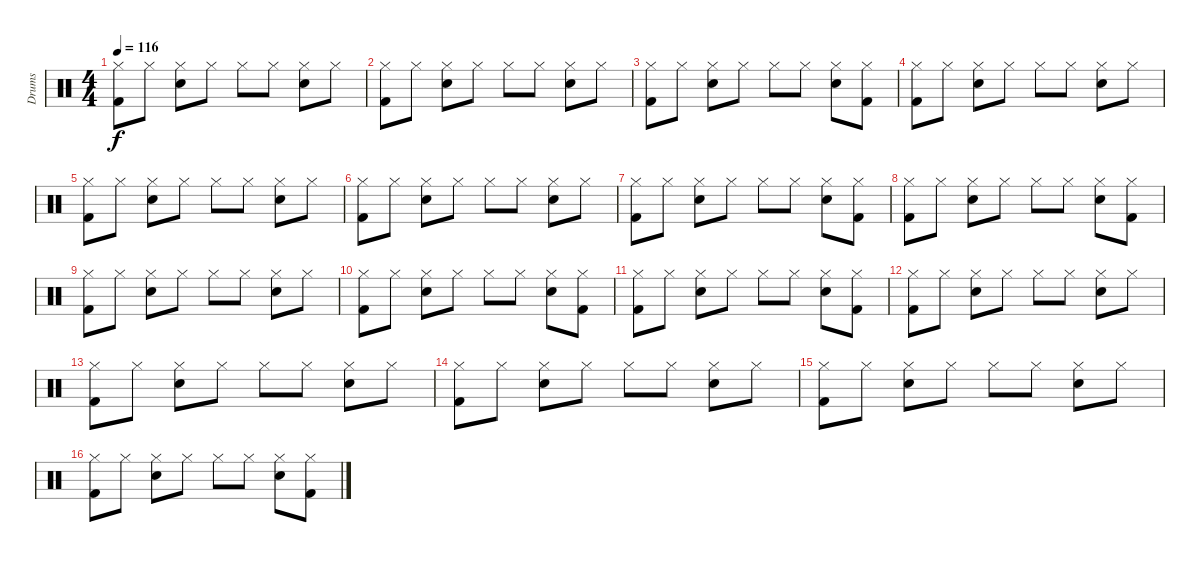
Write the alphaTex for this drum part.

\track ("Drums" "Drums") {instrument percussion}
\staff {score}
\articulation defaults
\ts (4 4)
\tempo 116
\clef neutral
\ks c
("Kick (hit) 2" "Hi-Hat (closed)").8{dy f} "Hi-Hat (closed)".8 ("Snare (hit) 2" "Hi-Hat (closed)").8 "Hi-Hat (closed)".8 "Hi-Hat (closed)".8 "Hi-Hat (closed)".8 ("Snare (hit) 2" "Hi-Hat (closed)").8 "Hi-Hat (closed)".8 |
("Kick (hit) 2" "Hi-Hat (closed)").8 "Hi-Hat (closed)".8 ("Snare (hit) 2" "Hi-Hat (closed)").8 "Hi-Hat (closed)".8 "Hi-Hat (closed)".8 "Hi-Hat (closed)".8 ("Snare (hit) 2" "Hi-Hat (closed)").8 "Hi-Hat (closed)".8 |
("Kick (hit) 2" "Hi-Hat (closed)").8 "Hi-Hat (closed)".8 ("Snare (hit) 2" "Hi-Hat (closed)").8 "Hi-Hat (closed)".8 "Hi-Hat (closed)".8 "Hi-Hat (closed)".8 ("Snare (hit) 2" "Hi-Hat (closed)").8 ("Kick (hit) 2" "Hi-Hat (closed)").8 |
("Kick (hit) 2" "Hi-Hat (closed)").8 "Hi-Hat (closed)".8 ("Snare (hit) 2" "Hi-Hat (closed)").8 "Hi-Hat (closed)".8 "Hi-Hat (closed)".8 "Hi-Hat (closed)".8 ("Snare (hit) 2" "Hi-Hat (closed)").8 "Hi-Hat (closed)".8 |
("Kick (hit) 2" "Hi-Hat (closed)").8 "Hi-Hat (closed)".8 ("Snare (hit) 2" "Hi-Hat (closed)").8 "Hi-Hat (closed)".8 "Hi-Hat (closed)".8 "Hi-Hat (closed)".8 ("Snare (hit) 2" "Hi-Hat (closed)").8 "Hi-Hat (closed)".8 |
("Kick (hit) 2" "Hi-Hat (closed)").8 "Hi-Hat (closed)".8 ("Snare (hit) 2" "Hi-Hat (closed)").8 "Hi-Hat (closed)".8 "Hi-Hat (closed)".8 "Hi-Hat (closed)".8 ("Snare (hit) 2" "Hi-Hat (closed)").8 "Hi-Hat (closed)".8 |
("Kick (hit) 2" "Hi-Hat (closed)").8 "Hi-Hat (closed)".8 ("Snare (hit) 2" "Hi-Hat (closed)").8 "Hi-Hat (closed)".8 "Hi-Hat (closed)".8 "Hi-Hat (closed)".8 ("Snare (hit) 2" "Hi-Hat (closed)").8 ("Kick (hit) 2" "Hi-Hat (closed)").8 |
("Kick (hit) 2" "Hi-Hat (closed)").8 "Hi-Hat (closed)".8 ("Snare (hit) 2" "Hi-Hat (closed)").8 "Hi-Hat (closed)".8 "Hi-Hat (closed)".8 "Hi-Hat (closed)".8 ("Snare (hit) 2" "Hi-Hat (closed)").8 ("Kick (hit) 2" "Hi-Hat (closed)").8 |
("Kick (hit) 2" "Hi-Hat (closed)").8 "Hi-Hat (closed)".8 ("Snare (hit) 2" "Hi-Hat (closed)").8 "Hi-Hat (closed)".8 "Hi-Hat (closed)".8 "Hi-Hat (closed)".8 ("Snare (hit) 2" "Hi-Hat (closed)").8 "Hi-Hat (closed)".8 |
("Kick (hit) 2" "Hi-Hat (closed)").8 "Hi-Hat (closed)".8 ("Snare (hit) 2" "Hi-Hat (closed)").8 "Hi-Hat (closed)".8 "Hi-Hat (closed)".8 "Hi-Hat (closed)".8 ("Snare (hit) 2" "Hi-Hat (closed)").8 ("Kick (hit) 2" "Hi-Hat (closed)").8 |
("Kick (hit) 2" "Hi-Hat (closed)").8 "Hi-Hat (closed)".8 ("Snare (hit) 2" "Hi-Hat (closed)").8 "Hi-Hat (closed)".8 "Hi-Hat (closed)".8 "Hi-Hat (closed)".8 ("Snare (hit) 2" "Hi-Hat (closed)").8 ("Kick (hit) 2" "Hi-Hat (closed)").8 |
("Kick (hit) 2" "Hi-Hat (closed)").8 "Hi-Hat (closed)".8 ("Snare (hit) 2" "Hi-Hat (closed)").8 "Hi-Hat (closed)".8 "Hi-Hat (closed)".8 "Hi-Hat (closed)".8 ("Snare (hit) 2" "Hi-Hat (closed)").8 "Hi-Hat (closed)".8 |
("Kick (hit) 2" "Hi-Hat (closed)").8 "Hi-Hat (closed)".8 ("Snare (hit) 2" "Hi-Hat (closed)").8 "Hi-Hat (closed)".8 "Hi-Hat (closed)".8 "Hi-Hat (closed)".8 ("Snare (hit) 2" "Hi-Hat (closed)").8 "Hi-Hat (closed)".8 |
("Kick (hit) 2" "Hi-Hat (closed)").8 "Hi-Hat (closed)".8 ("Snare (hit) 2" "Hi-Hat (closed)").8 "Hi-Hat (closed)".8 "Hi-Hat (closed)".8 "Hi-Hat (closed)".8 ("Snare (hit) 2" "Hi-Hat (closed)").8 "Hi-Hat (closed)".8 |
("Kick (hit) 2" "Hi-Hat (closed)").8 "Hi-Hat (closed)".8 ("Snare (hit) 2" "Hi-Hat (closed)").8 "Hi-Hat (closed)".8 "Hi-Hat (closed)".8 "Hi-Hat (closed)".8 ("Snare (hit) 2" "Hi-Hat (closed)").8 "Hi-Hat (closed)".8 |
("Kick (hit) 2" "Hi-Hat (closed)").8 "Hi-Hat (closed)".8 ("Snare (hit) 2" "Hi-Hat (closed)").8 "Hi-Hat (closed)".8 "Hi-Hat (closed)".8 "Hi-Hat (closed)".8 ("Snare (hit) 2" "Hi-Hat (closed)").8 ("Kick (hit) 2" "Hi-Hat (closed)").8
